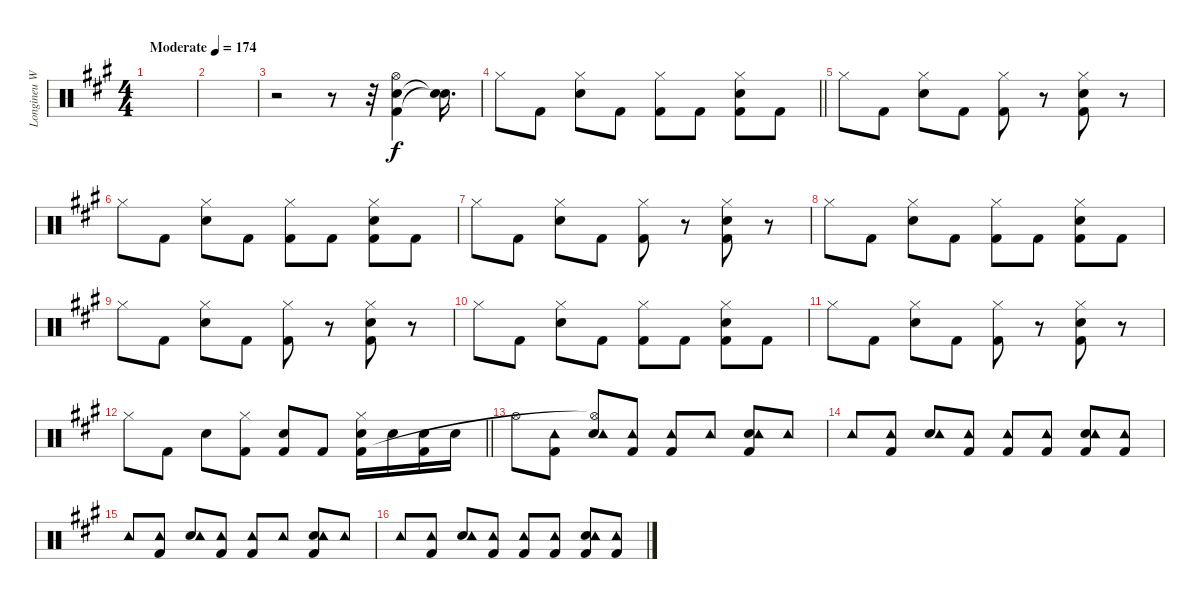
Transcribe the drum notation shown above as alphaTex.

\track ("Longineu W. Parsons III" "Longineu W") {instrument percussion}
\staff {score}
\articulation defaults
\ts (4 4)
\tempo (174 "Moderate")
\clef neutral
\ks a
|
|
r.2 r.8 r.32 ("Kick (hit) 2" "Electric Snare (hit)" "Hi-Hat (open)").4 ("Snare (hit)"{t} "Snare (hit)"{t}).16{d} |
\barLineRight lightlight "Hi-Hat (closed)".8 "Kick (hit) 2".8
("Electric Snare (hit)" "Hi-Hat (closed)").8 "Kick (hit) 2".8 ("Hi-Hat (closed)" "Kick (hit) 2").8 "Kick (hit) 2".8 ("Electric Snare (hit)" "Hi-Hat (closed)" "Kick (hit) 2").8 "Kick (hit) 2".8 |
"Hi-Hat (closed)".8 "Kick (hit) 2".8 ("Electric Snare (hit)" "Hi-Hat (closed)").8 "Kick (hit) 2".8 ("Hi-Hat (closed)" "Kick (hit) 2").8 r.8 ("Electric Snare (hit)" "Hi-Hat (closed)" "Kick (hit) 2").8 r.8 |
"Hi-Hat (closed)".8 "Kick (hit) 2".8 ("Electric Snare (hit)" "Hi-Hat (closed)").8 "Kick (hit) 2".8 ("Hi-Hat (closed)" "Kick (hit) 2").8 "Kick (hit) 2".8 ("Electric Snare (hit)" "Hi-Hat (closed)" "Kick (hit) 2").8 "Kick (hit) 2".8 |
"Hi-Hat (closed)".8 "Kick (hit) 2".8 ("Electric Snare (hit)" "Hi-Hat (closed)").8 "Kick (hit) 2".8 ("Hi-Hat (closed)" "Kick (hit) 2").8 r.8 ("Electric Snare (hit)" "Hi-Hat (closed)" "Kick (hit) 2").8 r.8 |
"Hi-Hat (closed)".8 "Kick (hit) 2".8 ("Electric Snare (hit)" "Hi-Hat (closed)").8 "Kick (hit) 2".8 ("Hi-Hat (closed)" "Kick (hit) 2").8 "Kick (hit) 2".8 ("Electric Snare (hit)" "Hi-Hat (closed)" "Kick (hit) 2").8 "Kick (hit) 2".8 |
"Hi-Hat (closed)".8 "Kick (hit) 2".8 ("Electric Snare (hit)" "Hi-Hat (closed)").8 "Kick (hit) 2".8 ("Hi-Hat (closed)" "Kick (hit) 2").8 r.8 ("Electric Snare (hit)" "Hi-Hat (closed)" "Kick (hit) 2").8 r.8 |
"Hi-Hat (closed)".8 "Kick (hit) 2".8 ("Electric Snare (hit)" "Hi-Hat (closed)").8 "Kick (hit) 2".8 ("Hi-Hat (closed)" "Kick (hit) 2").8 "Kick (hit) 2".8 ("Electric Snare (hit)" "Hi-Hat (closed)" "Kick (hit) 2").8 "Kick (hit) 2".8 |
"Hi-Hat (closed)".8 "Kick (hit) 2".8 ("Electric Snare (hit)" "Hi-Hat (closed)").8 "Kick (hit) 2".8 ("Hi-Hat (closed)" "Kick (hit) 2").8 r.8 ("Electric Snare (hit)" "Hi-Hat (closed)" "Kick (hit) 2").8 r.8 |
\barLineRight lightlight "Hi-Hat (closed)".8 "Kick (hit) 2".8 "Electric Snare (hit)".8
("Hi-Hat (closed)" "Kick (hit) 2").8 ("Electric Snare (hit)" "Kick (hit) 2").8 "Kick (hit) 2".8 ("Electric Snare (hit)" "Hi-Hat (closed)" "Kick (hit) 2").16 "Electric Snare (hit)".16 ("Electric Snare (hit)" "Kick (hit) 2").16 "Electric Snare (hit)".16 |
"Hi-Hat (open)".8 ("Tambourine (hit)" "Kick (hit) 2").8 ("Electric Snare (hit)" "Tambourine (hit)" "Hi-Hat (open)"{t}).8 ("Tambourine (hit)" "Kick (hit) 2").8 ("Tambourine (hit)" "Kick (hit) 2").8 "Tambourine (hit)".8 ("Electric Snare (hit)" "Tambourine (hit)" "Kick (hit) 2").8 "Tambourine (hit)".8 |
"Tambourine (hit)".8 ("Tambourine (hit)" "Kick (hit) 2").8 ("Electric Snare (hit)" "Tambourine (hit)").8 ("Tambourine (hit)" "Kick (hit) 2").8 ("Tambourine (hit)" "Kick (hit) 2").8 ("Tambourine (hit)" "Kick (hit) 2").8 ("Electric Snare (hit)" "Tambourine (hit)" "Kick (hit) 2").8 ("Tambourine (hit)" "Kick (hit) 2").8 |
"Tambourine (hit)".8 ("Tambourine (hit)" "Kick (hit) 2").8 ("Electric Snare (hit)" "Tambourine (hit)").8 ("Tambourine (hit)" "Kick (hit) 2").8 ("Tambourine (hit)" "Kick (hit) 2").8 "Tambourine (hit)".8 ("Electric Snare (hit)" "Tambourine (hit)" "Kick (hit) 2").8 "Tambourine (hit)".8 |
"Tambourine (hit)".8 ("Tambourine (hit)" "Kick (hit) 2").8 ("Electric Snare (hit)" "Tambourine (hit)").8 ("Tambourine (hit)" "Kick (hit) 2").8 ("Tambourine (hit)" "Kick (hit) 2").8 ("Tambourine (hit)" "Kick (hit) 2").8 ("Electric Snare (hit)" "Tambourine (hit)" "Kick (hit) 2").8 ("Tambourine (hit)" "Kick (hit) 2").8
